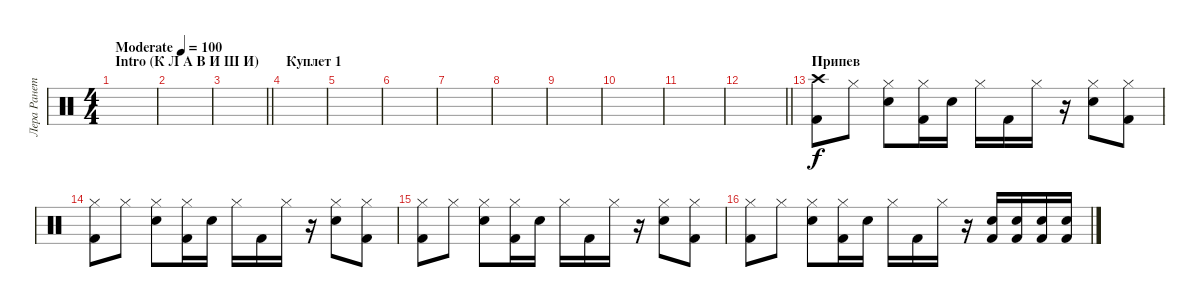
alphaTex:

\track ("Лера Ранетка" "Лера Ранет") {instrument percussion}
\staff {score}
\articulation defaults
\ts (4 4)
\section ("" "Intro (К Л А В И Ш И)")
\tempo (100 "Moderate")
\clef neutral
\ks c
|
|
\barLineRight lightlight
|
\section ("" "Куплет 1")
|
|
|
|
|
|
|
|
\barLineRight lightlight
|
\section ("" "Припев")
("Crash high (hit)" "Kick (hit) 2").8 "Hi-Hat (closed)".8 ("Hi-Hat (closed)" "Snare (hit) 2").8 ("Hi-Hat (closed)" "Kick (hit) 2").16 "Snare (hit) 2".16 "Hi-Hat (closed)".16 "Kick (hit) 2".16 "Hi-Hat (closed)".16 r.16 ("Hi-Hat (closed)" "Snare (hit) 2").8 ("Hi-Hat (closed)" "Kick (hit) 2").8 |
("Hi-Hat (closed)" "Kick (hit) 2").8 "Hi-Hat (closed)".8 ("Hi-Hat (closed)" "Snare (hit) 2").8 ("Hi-Hat (closed)" "Kick (hit) 2").16 "Snare (hit) 2".16 "Hi-Hat (closed)".16 "Kick (hit) 2".16 "Hi-Hat (closed)".16 r.16 ("Hi-Hat (closed)" "Snare (hit) 2").8 ("Hi-Hat (closed)" "Kick (hit) 2").8 |
("Hi-Hat (closed)" "Kick (hit) 2").8 "Hi-Hat (closed)".8 ("Hi-Hat (closed)" "Snare (hit) 2").8 ("Hi-Hat (closed)" "Kick (hit) 2").16 "Snare (hit) 2".16 "Hi-Hat (closed)".16 "Kick (hit) 2".16 "Hi-Hat (closed)".16 r.16 ("Hi-Hat (closed)" "Snare (hit) 2").8 ("Hi-Hat (closed)" "Kick (hit) 2").8 |
("Hi-Hat (closed)" "Kick (hit) 2").8 "Hi-Hat (closed)".8 ("Hi-Hat (closed)" "Snare (hit) 2").8 ("Hi-Hat (closed)" "Kick (hit) 2").16 "Snare (hit) 2".16 "Hi-Hat (closed)".16 "Kick (hit) 2".16 "Hi-Hat (closed)".16 r.16 ("Snare (hit) 2" "Kick (hit) 2").16 ("Snare (hit) 2" "Kick (hit) 2").16 ("Snare (hit) 2" "Kick (hit) 2").16 ("Snare (hit) 2" "Kick (hit) 2").16
